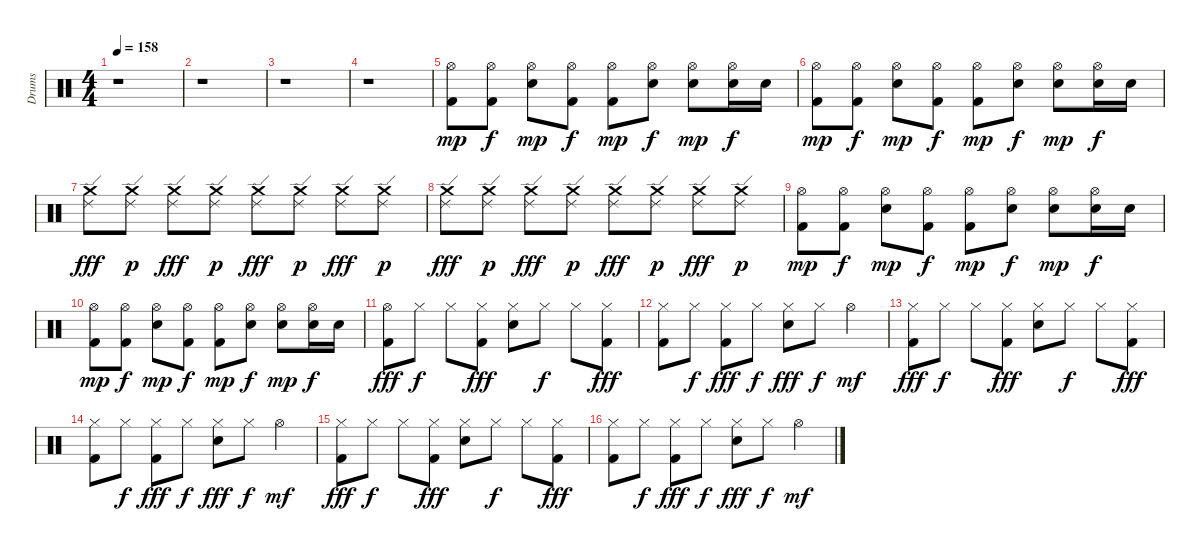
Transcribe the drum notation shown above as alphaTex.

\track ("Drums" "Drums") {instrument percussion}
\staff {score}
\articulation defaults
\ts (4 4)
\tempo 158
\clef neutral
\ks c
r.1{dy mp} |
r.1 |
r.1 |
r.1 |
("Hi-Hat (open)" "Kick (hit) 2").8 ("Hi-Hat (open)" "Kick (hit) 2").8{dy f} ("Hi-Hat (open)" "Snare (hit) 2").8{dy mp} ("Hi-Hat (open)" "Kick (hit) 2").8{dy f} ("Hi-Hat (open)" "Kick (hit) 2").8{dy mp} ("Hi-Hat (open)" "Snare (hit) 2").8{dy f} ("Hi-Hat (open)" "Snare (hit) 2").8{dy mp} ("Hi-Hat (open)" "Snare (hit) 2").16{dy f} "Snare (hit) 2".16 |
("Hi-Hat (open)" "Kick (hit) 2").8{dy mp} ("Hi-Hat (open)" "Kick (hit) 2").8{dy f} ("Hi-Hat (open)" "Snare (hit) 2").8{dy mp} ("Hi-Hat (open)" "Kick (hit) 2").8{dy f} ("Hi-Hat (open)" "Kick (hit) 2").8{dy mp} ("Hi-Hat (open)" "Snare (hit) 2").8{dy f} ("Hi-Hat (open)" "Snare (hit) 2").8{dy mp} ("Hi-Hat (open)" "Snare (hit) 2").16{dy f} "Snare (hit) 2".16 |
("Crash medium (hit)" "Ride (edge) 2").8{dy fff} ("Crash medium (hit)" "Ride (edge) 2").8{dy p} ("Crash medium (hit)" "Ride (edge) 2").8{dy fff} ("Crash medium (hit)" "Ride (edge) 2").8{dy p} ("Crash medium (hit)" "Ride (edge) 2").8{dy fff} ("Crash medium (hit)" "Ride (edge) 2").8{dy p} ("Crash medium (hit)" "Ride (edge) 2").8{dy fff} ("Crash medium (hit)" "Ride (edge) 2").8{dy p} |
("Crash medium (hit)" "Ride (edge) 2").8{dy fff} ("Crash medium (hit)" "Ride (edge) 2").8{dy p} ("Crash medium (hit)" "Ride (edge) 2").8{dy fff} ("Crash medium (hit)" "Ride (edge) 2").8{dy p} ("Crash medium (hit)" "Ride (edge) 2").8{dy fff} ("Crash medium (hit)" "Ride (edge) 2").8{dy p} ("Crash medium (hit)" "Ride (edge) 2").8{dy fff} ("Crash medium (hit)" "Ride (edge) 2").8{dy p} |
("Hi-Hat (open)" "Kick (hit) 2").8{dy mp} ("Hi-Hat (open)" "Kick (hit) 2").8{dy f} ("Hi-Hat (open)" "Snare (hit) 2").8{dy mp} ("Hi-Hat (open)" "Kick (hit) 2").8{dy f} ("Hi-Hat (open)" "Kick (hit) 2").8{dy mp} ("Hi-Hat (open)" "Snare (hit) 2").8{dy f} ("Hi-Hat (open)" "Snare (hit) 2").8{dy mp} ("Hi-Hat (open)" "Snare (hit) 2").16{dy f} "Snare (hit) 2".16 |
("Hi-Hat (open)" "Kick (hit) 2").8{dy mp} ("Hi-Hat (open)" "Kick (hit) 2").8{dy f} ("Hi-Hat (open)" "Snare (hit) 2").8{dy mp} ("Hi-Hat (open)" "Kick (hit) 2").8{dy f} ("Hi-Hat (open)" "Kick (hit) 2").8{dy mp} ("Hi-Hat (open)" "Snare (hit) 2").8{dy f} ("Hi-Hat (open)" "Snare (hit) 2").8{dy mp} ("Hi-Hat (open)" "Snare (hit) 2").16{dy f} "Snare (hit) 2".16 |
("Hi-Hat (open)" "Kick (hit) 2").8{dy fff} "Hi-Hat (closed)".8{dy f} "Hi-Hat (closed)".8 ("Hi-Hat (closed)" "Kick (hit) 2").8{dy fff} ("Hi-Hat (closed)" "Snare (hit) 2").8 "Hi-Hat (closed)".8{dy f} "Hi-Hat (closed)".8 ("Hi-Hat (closed)" "Kick (hit) 2").8{dy fff} |
("Hi-Hat (closed)" "Kick (hit) 2").8 "Hi-Hat (closed)".8{dy f} ("Hi-Hat (closed)" "Kick (hit) 2").8{dy fff} "Hi-Hat (closed)".8{dy f} ("Hi-Hat (closed)" "Snare (hit) 2").8{dy fff} "Hi-Hat (closed)".8{dy f} "Hi-Hat (open)".4{dy mf} |
("Hi-Hat (closed)" "Kick (hit) 2").8{dy fff} "Hi-Hat (closed)".8{dy f} "Hi-Hat (closed)".8 ("Hi-Hat (closed)" "Kick (hit) 2").8{dy fff} ("Hi-Hat (closed)" "Snare (hit) 2").8 "Hi-Hat (closed)".8{dy f} "Hi-Hat (closed)".8 ("Hi-Hat (closed)" "Kick (hit) 2").8{dy fff} |
("Hi-Hat (closed)" "Kick (hit) 2").8 "Hi-Hat (closed)".8{dy f} ("Hi-Hat (closed)" "Kick (hit) 2").8{dy fff} "Hi-Hat (closed)".8{dy f} ("Hi-Hat (closed)" "Snare (hit) 2").8{dy fff} "Hi-Hat (closed)".8{dy f} "Hi-Hat (open)".4{dy mf} |
("Hi-Hat (closed)" "Kick (hit) 2").8{dy fff} "Hi-Hat (closed)".8{dy f} "Hi-Hat (closed)".8 ("Hi-Hat (closed)" "Kick (hit) 2").8{dy fff} ("Hi-Hat (closed)" "Snare (hit) 2").8 "Hi-Hat (closed)".8{dy f} "Hi-Hat (closed)".8 ("Hi-Hat (closed)" "Kick (hit) 2").8{dy fff} |
("Hi-Hat (closed)" "Kick (hit) 2").8 "Hi-Hat (closed)".8{dy f} ("Hi-Hat (closed)" "Kick (hit) 2").8{dy fff} "Hi-Hat (closed)".8{dy f} ("Hi-Hat (closed)" "Snare (hit) 2").8{dy fff} "Hi-Hat (closed)".8{dy f} "Hi-Hat (open)".4{dy mf}
